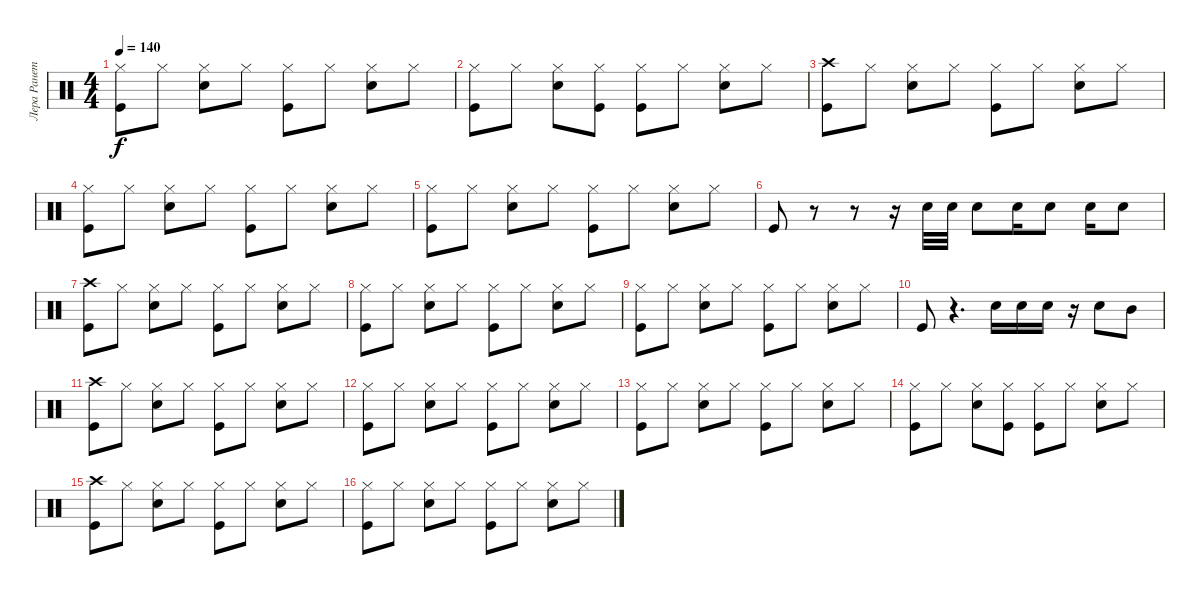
\track ("Лера Ранетка" "Лера Ранет") {instrument percussion}
\staff {score}
\articulation defaults
\ts (4 4)
\tempo 140
\clef neutral
\ks c
("Hi-Hat (closed)" "Kick (hit)").8{dy f} "Hi-Hat (closed)".8 ("Hi-Hat (closed)" "Electric Snare (hit)").8 "Hi-Hat (closed)".8 ("Hi-Hat (closed)" "Kick (hit)").8 "Hi-Hat (closed)".8 ("Hi-Hat (closed)" "Electric Snare (hit)").8 "Hi-Hat (closed)".8 |
("Hi-Hat (closed)" "Kick (hit)").8 "Hi-Hat (closed)".8 ("Hi-Hat (closed)" "Electric Snare (hit)").8 ("Hi-Hat (closed)" "Kick (hit)").8 ("Hi-Hat (closed)" "Kick (hit)").8 "Hi-Hat (closed)".8 ("Hi-Hat (closed)" "Electric Snare (hit)").8 "Hi-Hat (closed)".8 |
("Crash high (hit)" "Kick (hit)").8 "Hi-Hat (closed)".8 ("Hi-Hat (closed)" "Electric Snare (hit)").8 "Hi-Hat (closed)".8 ("Hi-Hat (closed)" "Kick (hit)").8 "Hi-Hat (closed)".8 ("Hi-Hat (closed)" "Electric Snare (hit)").8 "Hi-Hat (closed)".8 |
("Hi-Hat (closed)" "Kick (hit)").8 "Hi-Hat (closed)".8 ("Hi-Hat (closed)" "Electric Snare (hit)").8 "Hi-Hat (closed)".8 ("Hi-Hat (closed)" "Kick (hit)").8 "Hi-Hat (closed)".8 ("Hi-Hat (closed)" "Electric Snare (hit)").8 "Hi-Hat (closed)".8 |
("Hi-Hat (closed)" "Kick (hit)").8 "Hi-Hat (closed)".8 ("Hi-Hat (closed)" "Electric Snare (hit)").8 "Hi-Hat (closed)".8 ("Hi-Hat (closed)" "Kick (hit)").8 "Hi-Hat (closed)".8 ("Hi-Hat (closed)" "Electric Snare (hit)").8 "Hi-Hat (closed)".8 |
"Kick (hit)".8 r.8 r.8 r.16 "Electric Snare (hit)".32 "Electric Snare (hit)".32 "Electric Snare (hit)".8 "Electric Snare (hit)".16 "Electric Snare (hit)".8 "Electric Snare (hit)".16 "Electric Snare (hit)".8 |
("Crash high (hit)" "Kick (hit)").8 "Hi-Hat (closed)".8 ("Hi-Hat (closed)" "Electric Snare (hit)").8 "Hi-Hat (closed)".8 ("Hi-Hat (closed)" "Kick (hit)").8 "Hi-Hat (closed)".8 ("Hi-Hat (closed)" "Electric Snare (hit)").8 "Hi-Hat (closed)".8 |
("Hi-Hat (closed)" "Kick (hit)").8 "Hi-Hat (closed)".8 ("Hi-Hat (closed)" "Electric Snare (hit)").8 "Hi-Hat (closed)".8 ("Hi-Hat (closed)" "Kick (hit)").8 "Hi-Hat (closed)".8 ("Hi-Hat (closed)" "Electric Snare (hit)").8 "Hi-Hat (closed)".8 |
("Hi-Hat (closed)" "Kick (hit)").8 "Hi-Hat (closed)".8 ("Hi-Hat (closed)" "Electric Snare (hit)").8 "Hi-Hat (closed)".8 ("Hi-Hat (closed)" "Kick (hit)").8 "Hi-Hat (closed)".8 ("Hi-Hat (closed)" "Electric Snare (hit)").8 "Hi-Hat (closed)".8 |
"Kick (hit)".8 r.4{d} "Electric Snare (hit)".16 "Electric Snare (hit)".16 "Electric Snare (hit)".16 r.16 "Electric Snare (hit)".8 "Mid Tom (hit)".8 |
("Crash high (hit)" "Kick (hit)").8 "Hi-Hat (closed)".8 ("Hi-Hat (closed)" "Electric Snare (hit)").8 "Hi-Hat (closed)".8 ("Hi-Hat (closed)" "Kick (hit)").8 "Hi-Hat (closed)".8 ("Hi-Hat (closed)" "Electric Snare (hit)").8 "Hi-Hat (closed)".8 |
("Hi-Hat (closed)" "Kick (hit)").8 "Hi-Hat (closed)".8 ("Hi-Hat (closed)" "Electric Snare (hit)").8 "Hi-Hat (closed)".8 ("Hi-Hat (closed)" "Kick (hit)").8 "Hi-Hat (closed)".8 ("Hi-Hat (closed)" "Electric Snare (hit)").8 "Hi-Hat (closed)".8 |
("Hi-Hat (closed)" "Kick (hit)").8 "Hi-Hat (closed)".8 ("Hi-Hat (closed)" "Electric Snare (hit)").8 "Hi-Hat (closed)".8 ("Hi-Hat (closed)" "Kick (hit)").8 "Hi-Hat (closed)".8 ("Hi-Hat (closed)" "Electric Snare (hit)").8 "Hi-Hat (closed)".8 |
("Hi-Hat (closed)" "Kick (hit)").8 "Hi-Hat (closed)".8 ("Hi-Hat (closed)" "Electric Snare (hit)").8 ("Hi-Hat (closed)" "Kick (hit)").8 ("Hi-Hat (closed)" "Kick (hit)").8 "Hi-Hat (closed)".8 ("Hi-Hat (closed)" "Electric Snare (hit)").8 "Hi-Hat (closed)".8 |
("Crash high (hit)" "Kick (hit)").8 "Hi-Hat (closed)".8 ("Hi-Hat (closed)" "Electric Snare (hit)").8 "Hi-Hat (closed)".8 ("Hi-Hat (closed)" "Kick (hit)").8 "Hi-Hat (closed)".8 ("Hi-Hat (closed)" "Electric Snare (hit)").8 "Hi-Hat (closed)".8 |
("Hi-Hat (closed)" "Kick (hit)").8 "Hi-Hat (closed)".8 ("Hi-Hat (closed)" "Electric Snare (hit)").8 "Hi-Hat (closed)".8 ("Hi-Hat (closed)" "Kick (hit)").8 "Hi-Hat (closed)".8 ("Hi-Hat (closed)" "Electric Snare (hit)").8 "Hi-Hat (closed)".8
